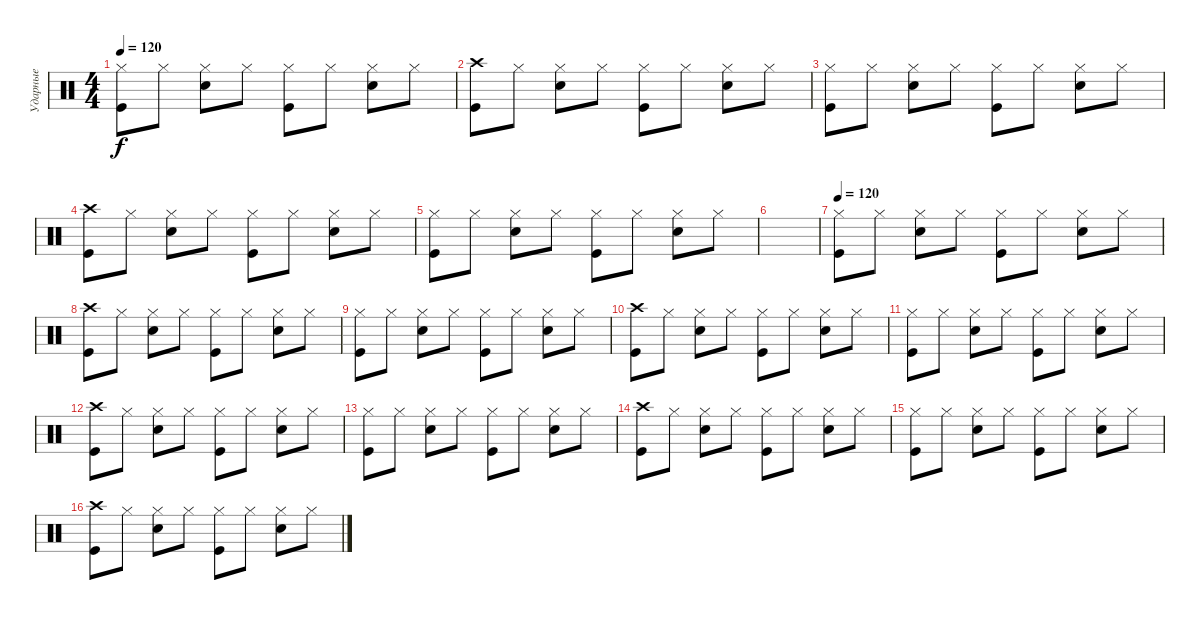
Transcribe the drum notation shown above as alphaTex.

\track ("Ударные" "Ударные") {instrument percussion}
\staff {score}
\articulation defaults
\ts (4 4)
\tempo 120
\clef neutral
\ks c
("Hi-Hat (closed)" "Kick (hit)").8{dy f} "Hi-Hat (closed)".8 ("Hi-Hat (closed)" "Electric Snare (hit)").8 "Hi-Hat (closed)".8 ("Hi-Hat (closed)" "Kick (hit)").8 "Hi-Hat (closed)".8 ("Hi-Hat (closed)" "Electric Snare (hit)").8 "Hi-Hat (closed)".8 |
("Crash high (hit)" "Kick (hit)").8 "Hi-Hat (closed)".8 ("Hi-Hat (closed)" "Electric Snare (hit)").8 "Hi-Hat (closed)".8 ("Hi-Hat (closed)" "Kick (hit)").8 "Hi-Hat (closed)".8 ("Hi-Hat (closed)" "Electric Snare (hit)").8 "Hi-Hat (closed)".8 |
("Hi-Hat (closed)" "Kick (hit)").8 "Hi-Hat (closed)".8 ("Hi-Hat (closed)" "Electric Snare (hit)").8 "Hi-Hat (closed)".8 ("Hi-Hat (closed)" "Kick (hit)").8 "Hi-Hat (closed)".8 ("Hi-Hat (closed)" "Electric Snare (hit)").8 "Hi-Hat (closed)".8 |
("Crash high (hit)" "Kick (hit)").8 "Hi-Hat (closed)".8 ("Hi-Hat (closed)" "Electric Snare (hit)").8 "Hi-Hat (closed)".8 ("Hi-Hat (closed)" "Kick (hit)").8 "Hi-Hat (closed)".8 ("Hi-Hat (closed)" "Electric Snare (hit)").8 "Hi-Hat (closed)".8 |
("Hi-Hat (closed)" "Kick (hit)").8 "Hi-Hat (closed)".8 ("Hi-Hat (closed)" "Electric Snare (hit)").8 "Hi-Hat (closed)".8 ("Hi-Hat (closed)" "Kick (hit)").8 "Hi-Hat (closed)".8 ("Hi-Hat (closed)" "Electric Snare (hit)").8 "Hi-Hat (closed)".8 |
|
\tempo 120
("Hi-Hat (closed)" "Kick (hit)").8 "Hi-Hat (closed)".8 ("Hi-Hat (closed)" "Electric Snare (hit)").8 "Hi-Hat (closed)".8 ("Hi-Hat (closed)" "Kick (hit)").8 "Hi-Hat (closed)".8 ("Hi-Hat (closed)" "Electric Snare (hit)").8 "Hi-Hat (closed)".8 |
("Crash high (hit)" "Kick (hit)").8 "Hi-Hat (closed)".8 ("Hi-Hat (closed)" "Electric Snare (hit)").8 "Hi-Hat (closed)".8 ("Hi-Hat (closed)" "Kick (hit)").8 "Hi-Hat (closed)".8 ("Hi-Hat (closed)" "Electric Snare (hit)").8 "Hi-Hat (closed)".8 |
("Hi-Hat (closed)" "Kick (hit)").8 "Hi-Hat (closed)".8 ("Hi-Hat (closed)" "Electric Snare (hit)").8 "Hi-Hat (closed)".8 ("Hi-Hat (closed)" "Kick (hit)").8 "Hi-Hat (closed)".8 ("Hi-Hat (closed)" "Electric Snare (hit)").8 "Hi-Hat (closed)".8 |
("Crash high (hit)" "Kick (hit)").8 "Hi-Hat (closed)".8 ("Hi-Hat (closed)" "Electric Snare (hit)").8 "Hi-Hat (closed)".8 ("Hi-Hat (closed)" "Kick (hit)").8 "Hi-Hat (closed)".8 ("Hi-Hat (closed)" "Electric Snare (hit)").8 "Hi-Hat (closed)".8 |
("Hi-Hat (closed)" "Kick (hit)").8 "Hi-Hat (closed)".8 ("Hi-Hat (closed)" "Electric Snare (hit)").8 "Hi-Hat (closed)".8 ("Hi-Hat (closed)" "Kick (hit)").8 "Hi-Hat (closed)".8 ("Hi-Hat (closed)" "Electric Snare (hit)").8 "Hi-Hat (closed)".8 |
("Crash high (hit)" "Kick (hit)").8 "Hi-Hat (closed)".8 ("Hi-Hat (closed)" "Electric Snare (hit)").8 "Hi-Hat (closed)".8 ("Hi-Hat (closed)" "Kick (hit)").8 "Hi-Hat (closed)".8 ("Hi-Hat (closed)" "Electric Snare (hit)").8 "Hi-Hat (closed)".8 |
("Hi-Hat (closed)" "Kick (hit)").8 "Hi-Hat (closed)".8 ("Hi-Hat (closed)" "Electric Snare (hit)").8 "Hi-Hat (closed)".8 ("Hi-Hat (closed)" "Kick (hit)").8 "Hi-Hat (closed)".8 ("Hi-Hat (closed)" "Electric Snare (hit)").8 "Hi-Hat (closed)".8 |
("Crash high (hit)" "Kick (hit)").8 "Hi-Hat (closed)".8 ("Hi-Hat (closed)" "Electric Snare (hit)").8 "Hi-Hat (closed)".8 ("Hi-Hat (closed)" "Kick (hit)").8 "Hi-Hat (closed)".8 ("Hi-Hat (closed)" "Electric Snare (hit)").8 "Hi-Hat (closed)".8 |
("Hi-Hat (closed)" "Kick (hit)").8 "Hi-Hat (closed)".8 ("Hi-Hat (closed)" "Electric Snare (hit)").8 "Hi-Hat (closed)".8 ("Hi-Hat (closed)" "Kick (hit)").8 "Hi-Hat (closed)".8 ("Hi-Hat (closed)" "Electric Snare (hit)").8 "Hi-Hat (closed)".8 |
("Crash high (hit)" "Kick (hit)").8 "Hi-Hat (closed)".8 ("Hi-Hat (closed)" "Electric Snare (hit)").8 "Hi-Hat (closed)".8 ("Hi-Hat (closed)" "Kick (hit)").8 "Hi-Hat (closed)".8 ("Hi-Hat (closed)" "Electric Snare (hit)").8 "Hi-Hat (closed)".8
